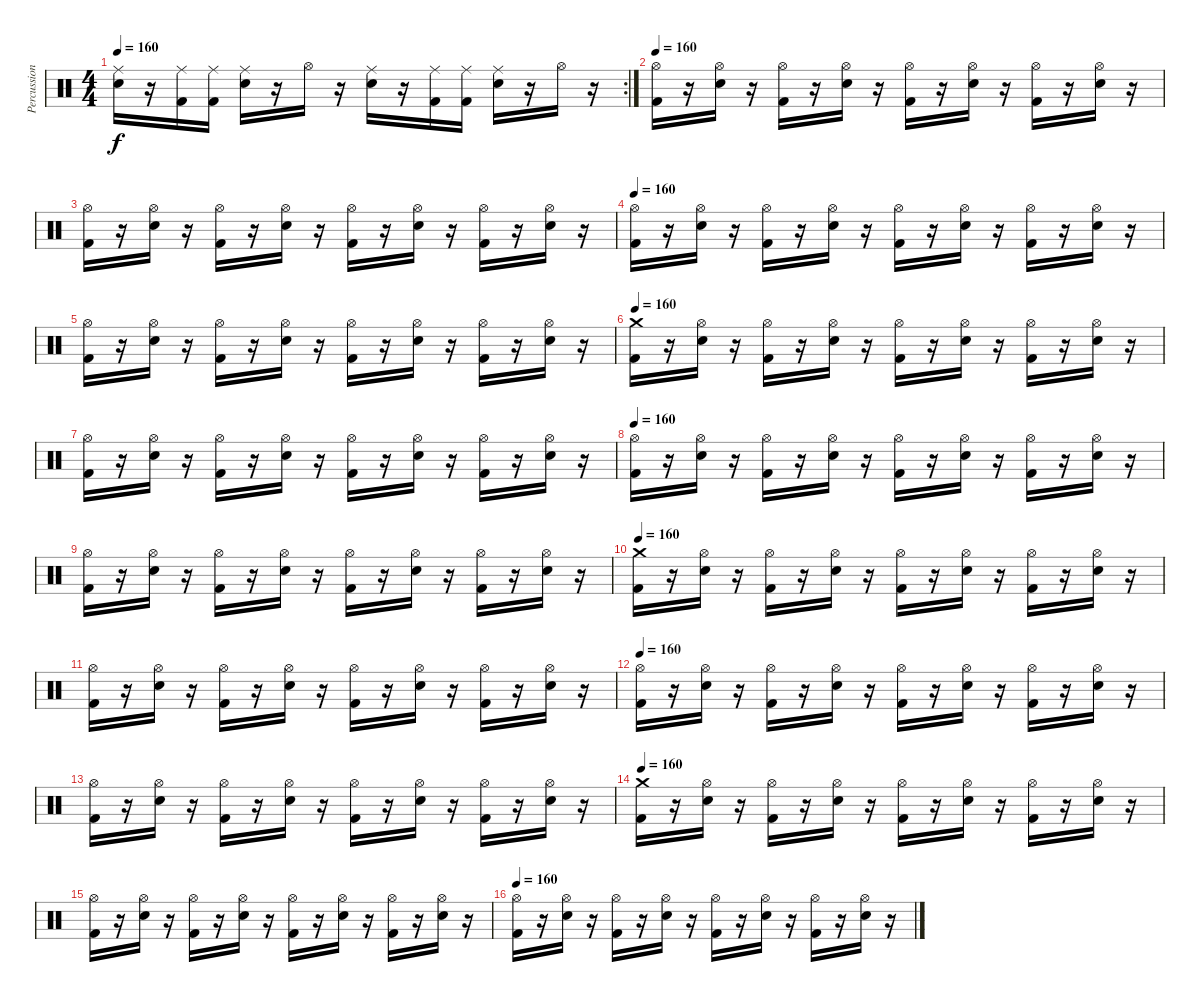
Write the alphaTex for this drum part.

\track ("Percussions" "Percussion") {instrument percussion}
\staff {score}
\articulation defaults
\rc 2
\ts (4 4)
\tempo 160
\clef neutral
\ks c
("Electric Snare (hit)" "Ride (middle)").16{dy f} r.16 ("Kick (hit) 2" "Ride (middle)").16 ("Kick (hit) 2" "Ride (middle)").16 ("Electric Snare (hit)" "Ride (middle)").16 r.16 "Hi-Hat (open)".16 r.16 ("Electric Snare (hit)" "Ride (middle)").16 r.16 ("Kick (hit) 2" "Ride (middle)").16 ("Kick (hit) 2" "Ride (middle)").16 ("Electric Snare (hit)" "Ride (middle)").16 r.16 "Hi-Hat (open)".16 r.16 |
\tempo 160
("Kick (hit) 2" "Hi-Hat (open)").16 r.16 ("Electric Snare (hit)" "Hi-Hat (open)").16 r.16 ("Kick (hit) 2" "Hi-Hat (open)").16 r.16 ("Electric Snare (hit)" "Hi-Hat (open)").16 r.16 ("Kick (hit) 2" "Hi-Hat (open)").16 r.16 ("Electric Snare (hit)" "Hi-Hat (open)").16 r.16 ("Kick (hit) 2" "Hi-Hat (open)").16 r.16 ("Electric Snare (hit)" "Hi-Hat (open)").16 r.16 |
("Kick (hit) 2" "Hi-Hat (open)").16 r.16 ("Electric Snare (hit)" "Hi-Hat (open)").16 r.16 ("Kick (hit) 2" "Hi-Hat (open)").16 r.16 ("Electric Snare (hit)" "Hi-Hat (open)").16 r.16 ("Kick (hit) 2" "Hi-Hat (open)").16 r.16 ("Electric Snare (hit)" "Hi-Hat (open)").16 r.16 ("Kick (hit) 2" "Hi-Hat (open)").16 r.16 ("Electric Snare (hit)" "Hi-Hat (open)").16 r.16 |
\tempo 160
("Kick (hit) 2" "Hi-Hat (open)").16 r.16 ("Electric Snare (hit)" "Hi-Hat (open)").16 r.16 ("Kick (hit) 2" "Hi-Hat (open)").16 r.16 ("Electric Snare (hit)" "Hi-Hat (open)").16 r.16 ("Kick (hit) 2" "Hi-Hat (open)").16 r.16 ("Electric Snare (hit)" "Hi-Hat (open)").16 r.16 ("Kick (hit) 2" "Hi-Hat (open)").16 r.16 ("Electric Snare (hit)" "Hi-Hat (open)").16 r.16 |
("Kick (hit) 2" "Hi-Hat (open)").16 r.16 ("Electric Snare (hit)" "Hi-Hat (open)").16 r.16 ("Kick (hit) 2" "Hi-Hat (open)").16 r.16 ("Electric Snare (hit)" "Hi-Hat (open)").16 r.16 ("Kick (hit) 2" "Hi-Hat (open)").16 r.16 ("Electric Snare (hit)" "Hi-Hat (open)").16 r.16 ("Kick (hit) 2" "Hi-Hat (open)").16 r.16 ("Electric Snare (hit)" "Hi-Hat (open)").16 r.16 |
\tempo 160
("Kick (hit) 2" "Crash medium (hit)").16 r.16 ("Electric Snare (hit)" "Hi-Hat (open)").16 r.16 ("Kick (hit) 2" "Hi-Hat (open)").16 r.16 ("Electric Snare (hit)" "Hi-Hat (open)").16 r.16 ("Kick (hit) 2" "Hi-Hat (open)").16 r.16 ("Electric Snare (hit)" "Hi-Hat (open)").16 r.16 ("Kick (hit) 2" "Hi-Hat (open)").16 r.16 ("Electric Snare (hit)" "Hi-Hat (open)").16 r.16 |
("Kick (hit) 2" "Hi-Hat (open)").16 r.16 ("Electric Snare (hit)" "Hi-Hat (open)").16 r.16 ("Kick (hit) 2" "Hi-Hat (open)").16 r.16 ("Electric Snare (hit)" "Hi-Hat (open)").16 r.16 ("Kick (hit) 2" "Hi-Hat (open)").16 r.16 ("Electric Snare (hit)" "Hi-Hat (open)").16 r.16 ("Kick (hit) 2" "Hi-Hat (open)").16 r.16 ("Electric Snare (hit)" "Hi-Hat (open)").16 r.16 |
\tempo 160
("Kick (hit) 2" "Hi-Hat (open)").16 r.16 ("Electric Snare (hit)" "Hi-Hat (open)").16 r.16 ("Kick (hit) 2" "Hi-Hat (open)").16 r.16 ("Electric Snare (hit)" "Hi-Hat (open)").16 r.16 ("Kick (hit) 2" "Hi-Hat (open)").16 r.16 ("Electric Snare (hit)" "Hi-Hat (open)").16 r.16 ("Kick (hit) 2" "Hi-Hat (open)").16 r.16 ("Electric Snare (hit)" "Hi-Hat (open)").16 r.16 |
("Kick (hit) 2" "Hi-Hat (open)").16 r.16 ("Electric Snare (hit)" "Hi-Hat (open)").16 r.16 ("Kick (hit) 2" "Hi-Hat (open)").16 r.16 ("Electric Snare (hit)" "Hi-Hat (open)").16 r.16 ("Kick (hit) 2" "Hi-Hat (open)").16 r.16 ("Electric Snare (hit)" "Hi-Hat (open)").16 r.16 ("Kick (hit) 2" "Hi-Hat (open)").16 r.16 ("Electric Snare (hit)" "Hi-Hat (open)").16 r.16 |
\tempo 160
("Kick (hit) 2" "Crash medium (hit)").16 r.16 ("Electric Snare (hit)" "Hi-Hat (open)").16 r.16 ("Kick (hit) 2" "Hi-Hat (open)").16 r.16 ("Electric Snare (hit)" "Hi-Hat (open)").16 r.16 ("Kick (hit) 2" "Hi-Hat (open)").16 r.16 ("Electric Snare (hit)" "Hi-Hat (open)").16 r.16 ("Kick (hit) 2" "Hi-Hat (open)").16 r.16 ("Electric Snare (hit)" "Hi-Hat (open)").16 r.16 |
("Kick (hit) 2" "Hi-Hat (open)").16 r.16 ("Electric Snare (hit)" "Hi-Hat (open)").16 r.16 ("Kick (hit) 2" "Hi-Hat (open)").16 r.16 ("Electric Snare (hit)" "Hi-Hat (open)").16 r.16 ("Kick (hit) 2" "Hi-Hat (open)").16 r.16 ("Electric Snare (hit)" "Hi-Hat (open)").16 r.16 ("Kick (hit) 2" "Hi-Hat (open)").16 r.16 ("Electric Snare (hit)" "Hi-Hat (open)").16 r.16 |
\tempo 160
("Kick (hit) 2" "Hi-Hat (open)").16 r.16 ("Electric Snare (hit)" "Hi-Hat (open)").16 r.16 ("Kick (hit) 2" "Hi-Hat (open)").16 r.16 ("Electric Snare (hit)" "Hi-Hat (open)").16 r.16 ("Kick (hit) 2" "Hi-Hat (open)").16 r.16 ("Electric Snare (hit)" "Hi-Hat (open)").16 r.16 ("Kick (hit) 2" "Hi-Hat (open)").16 r.16 ("Electric Snare (hit)" "Hi-Hat (open)").16 r.16 |
("Kick (hit) 2" "Hi-Hat (open)").16 r.16 ("Electric Snare (hit)" "Hi-Hat (open)").16 r.16 ("Kick (hit) 2" "Hi-Hat (open)").16 r.16 ("Electric Snare (hit)" "Hi-Hat (open)").16 r.16 ("Kick (hit) 2" "Hi-Hat (open)").16 r.16 ("Electric Snare (hit)" "Hi-Hat (open)").16 r.16 ("Kick (hit) 2" "Hi-Hat (open)").16 r.16 ("Electric Snare (hit)" "Hi-Hat (open)").16 r.16 |
\tempo 160
("Kick (hit) 2" "Crash medium (hit)").16 r.16 ("Electric Snare (hit)" "Hi-Hat (open)").16 r.16 ("Kick (hit) 2" "Hi-Hat (open)").16 r.16 ("Electric Snare (hit)" "Hi-Hat (open)").16 r.16 ("Kick (hit) 2" "Hi-Hat (open)").16 r.16 ("Electric Snare (hit)" "Hi-Hat (open)").16 r.16 ("Kick (hit) 2" "Hi-Hat (open)").16 r.16 ("Electric Snare (hit)" "Hi-Hat (open)").16 r.16 |
("Kick (hit) 2" "Hi-Hat (open)").16 r.16 ("Electric Snare (hit)" "Hi-Hat (open)").16 r.16 ("Kick (hit) 2" "Hi-Hat (open)").16 r.16 ("Electric Snare (hit)" "Hi-Hat (open)").16 r.16 ("Kick (hit) 2" "Hi-Hat (open)").16 r.16 ("Electric Snare (hit)" "Hi-Hat (open)").16 r.16 ("Kick (hit) 2" "Hi-Hat (open)").16 r.16 ("Electric Snare (hit)" "Hi-Hat (open)").16 r.16 |
\tempo 160
("Kick (hit) 2" "Hi-Hat (open)").16 r.16 ("Electric Snare (hit)" "Hi-Hat (open)").16 r.16 ("Kick (hit) 2" "Hi-Hat (open)").16 r.16 ("Electric Snare (hit)" "Hi-Hat (open)").16 r.16 ("Kick (hit) 2" "Hi-Hat (open)").16 r.16 ("Electric Snare (hit)" "Hi-Hat (open)").16 r.16 ("Kick (hit) 2" "Hi-Hat (open)").16 r.16 ("Electric Snare (hit)" "Hi-Hat (open)").16 r.16
